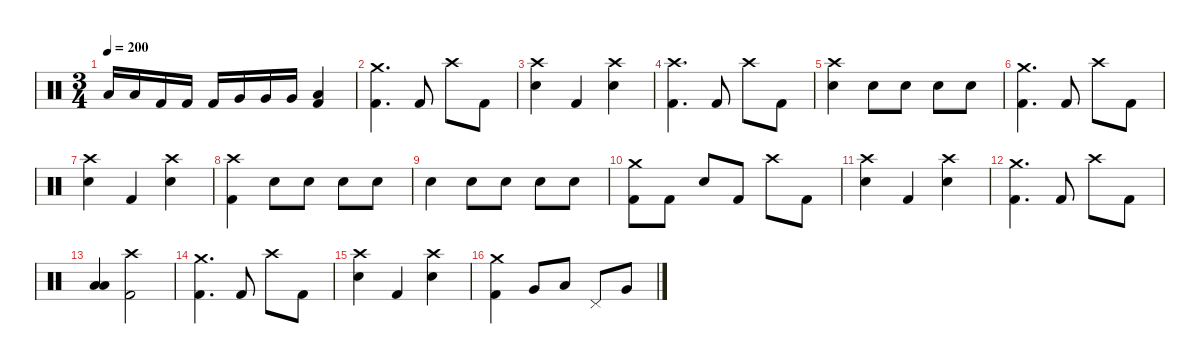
\defaultSystemsLayout 4
\hideDynamics
\bracketExtendMode nobrackets
\singleTrackTrackNamePolicy hidden
\multiTrackTrackNamePolicy hidden
\firstSystemTrackNameMode fullname
\otherSystemsTrackNameOrientation horizontal
\track ("Drums" "drm.") {defaultSystemsLayout 4 instrument percussion}
\staff {score}
\articulation defaults
\ts (3 4)
\tempo 200
\clef neutral
\ks c "Low Tom (hit)".16{dy f beam Up} "Low Tom (hit)".16{beam Up} "Kick (hit) 2".16{beam Up} "Kick (hit) 2".16{beam Up} "Kick (hit) 2".16{beam Up} "Very Low Tom (hit)".16{beam Up} "Very Low Tom (hit)".16{beam Up} "Very Low Tom (hit)".16{beam Up}
("Low Floor Tom (hit)" "Kick (hit) 2").4{beam Up} |
("Crash medium (hit)" "Kick (hit) 2").4{d beam Down} "Kick (hit) 2".8{beam Up} "Crash high (hit)".8{dy mp beam Down} "Kick (hit) 2".8{dy f beam Down} |
("Crash high (hit)" "Snare (hit) 2").4{beam Down} "Kick (hit) 2".4{beam Up} ("Crash high (hit)" "Snare (hit) 2").4{beam Down} |
("Crash high (hit)" "Kick (hit) 2").4{d dy mp beam Down} "Kick (hit) 2".8{dy f beam Up} "Crash high (hit)".8{dy mp beam Down} "Kick (hit) 2".8{dy f beam Down} |
("Crash high (hit)" "Snare (hit) 2").4{beam Down} "Snare (hit) 2".8{beam Down} "Snare (hit) 2".8{beam Down} "Snare (hit) 2".8{beam Down} "Snare (hit) 2".8{beam Down} |
("Crash medium (hit)" "Kick (hit) 2").4{d beam Down} "Kick (hit) 2".8{beam Up} "Crash high (hit)".8{dy mp beam Down} "Kick (hit) 2".8{dy f beam Down} |
("Crash high (hit)" "Snare (hit) 2").4{beam Down} "Kick (hit) 2".4{beam Up} ("Crash high (hit)" "Snare (hit) 2").4{beam Down} |
("Crash high (hit)" "Kick (hit) 2").4{dy mp beam Down} "Snare (hit) 2".8{dy f beam Down} "Snare (hit) 2".8{beam Down} "Snare (hit) 2".8{beam Down} "Snare (hit) 2".8{beam Down} |
"Snare (hit) 2".4{beam Down} "Snare (hit) 2".8{beam Down} "Snare (hit) 2".8{beam Down} "Snare (hit) 2".8{beam Down} "Snare (hit) 2".8{beam Down} |
("Crash medium (hit)" "Kick (hit) 2").8{beam Down} "Kick (hit) 2".8{beam Down} "Snare (hit) 2".8{beam Up} "Kick (hit) 2".8{beam Up} "Crash high (hit)".8{dy mp beam Down} "Kick (hit) 2".8{dy f beam Down} |
("Crash high (hit)" "Snare (hit) 2").4{beam Down} "Kick (hit) 2".4{beam Up} ("Crash high (hit)" "Snare (hit) 2").4{beam Down} |
("Crash medium (hit)" "Kick (hit) 2").4{d dy mp beam Down} "Kick (hit) 2".8{dy f beam Up} "Crash high (hit)".8{dy mp beam Down} "Kick (hit) 2".8{dy f beam Down} |
("Low Floor Tom (hit)" "Low Floor Tom (hit)").4{beam Up} ("Crash high (hit)" "Kick (hit) 2").2{beam Down} |
("Crash medium (hit)" "Kick (hit) 2").4{d beam Down} "Kick (hit) 2".8{beam Up} "Crash high (hit)".8{dy mp beam Down} "Kick (hit) 2".8{dy f beam Down} |
("Crash high (hit)" "Snare (hit) 2").4{beam Down} "Kick (hit) 2".4{beam Up} ("Crash high (hit)" "Snare (hit) 2").4{beam Down} |
("Crash medium (hit)" "Kick (hit) 2").4{dy mp beam Down} "Very Low Tom (hit)".8{dy f beam Up} "Low Tom (hit)".8{beam Up} "Pedal Hi-Hat (hit)".8{beam Up} "Very Low Tom (hit)".8{beam Up}
